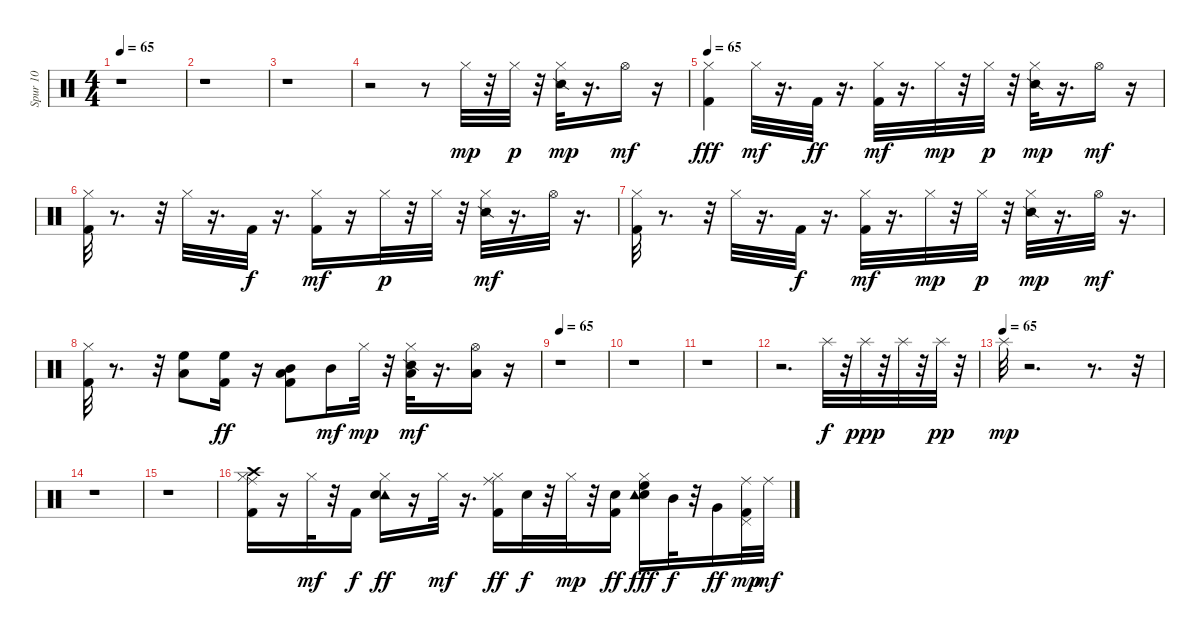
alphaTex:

\track ("Spur 10" "Spur 10") {instrument percussion}
\staff {score}
\articulation defaults
\ts (4 4)
\tempo 65
\clef neutral
\ks c
r.1{dy mp} |
r.1 |
r.1 |
r.2 r.8 "Hi-Hat (closed)".32 r.32 "Hi-Hat (closed)".32{dy p} r.32 ("Hi-Hat (closed)" "Snare (side stick) 2").32{dy mp} r.16{d} "Hi-Hat (open)".16{dy mf} r.16 |
\tempo 65
("Hi-Hat (closed)" "Kick (hit) 2").4{dy fff} "Hi-Hat (closed)".32{dy mf} r.16{d} "Kick (hit) 2".32{dy ff} r.16{d} ("Kick (hit) 2" "Hi-Hat (closed)").32{dy mf} r.16{d} "Hi-Hat (closed)".32{dy mp} r.32 "Hi-Hat (closed)".32{dy p} r.32 ("Snare (side stick) 2" "Hi-Hat (closed)").32{dy mp} r.16{d} "Hi-Hat (open)".16{dy mf} r.16 |
("Kick (hit) 2" "Hi-Hat (closed)").32 r.8{d} r.32 "Hi-Hat (closed)".32 r.16{d} "Kick (hit) 2".32{dy f} r.16{d} ("Kick (hit) 2" "Hi-Hat (closed)").16{dy mf} r.16 "Hi-Hat (closed)".32{dy p} r.32 "Hi-Hat (closed)".32 r.32 ("Snare (side stick) 2" "Hi-Hat (closed)").32{dy mf} r.16{d} "Hi-Hat (open)".32 r.16{d} |
("Kick (hit) 2" "Hi-Hat (closed)").32 r.8{d} r.32 "Hi-Hat (closed)".32 r.16{d} "Kick (hit) 2".32{dy f} r.16{d} ("Kick (hit) 2" "Hi-Hat (closed)").32{dy mf} r.16{d} "Hi-Hat (closed)".32{dy mp} r.32 "Hi-Hat (closed)".32{dy p} r.32 ("Snare (side stick) 2" "Hi-Hat (closed)").32{dy mp} r.16{d} "Hi-Hat (open)".32{dy mf} r.16{d} |
("Kick (hit) 2" "Hi-Hat (closed)").32 r.8{d} r.32 ("Low Tom (hit)" "High Floor Tom (hit)").8 ("Kick (hit) 2" "High Floor Tom (hit)").16{dy ff} r.16 ("Low Tom (hit)" "Kick (hit) 2" "Mid Tom (hit)").8 "Mid Tom (hit)".16{dy mf} "Hi-Hat (closed)".32{dy mp} r.32 ("Snare (side stick) 2" "Hi-Hat (closed)" "Low Tom (hit)").32{dy mf} r.16{d} ("Hi-Hat (open)" "Low Tom (hit)").16 r.16 |
\tempo 65
r.1 |
r.1 |
r.1 |
r.2{d} "Splash (hit)".32{dy f} r.32 "Splash (hit)".32{dy ppp} r.32 "Splash (hit)".32 r.32 "Splash (hit)".32{dy pp} r.32 |
\tempo (65)
"Splash (hit)".32{dy mp} r.2{d} r.8{d} r.32 |
r.1 |
r.1 |
("Ride (middle)" "Crash high (hit)" "Hi-Hat (closed)" "Kick (hit) 2").16 r.16 "Hi-Hat (closed)".32{dy mf} r.32 "Kick (hit) 2".16{dy f} ("Hi-Hat (closed)" "Tambourine (hit)" "Electric Snare (hit)").16{dy ff} r.16 "Hi-Hat (closed)".32{dy mf} r.16{d} ("Ride (middle)" "Hi-Hat (closed)" "Kick (hit) 2").16{dy ff} "Electric Snare (hit)".32{dy f} r.32 "Hi-Hat (closed)".32{dy mp} r.32 ("Kick (hit) 2" "Electric Snare (hit)").16{dy ff} ("High Floor Tom (hit)" "Hi-Hat (closed)" "Electric Snare (hit)" "Tambourine (hit)").16{dy fff} "Mid Tom (hit)".32{dy f} r.32 "Very Low Tom (hit)".16{dy ff} ("Pedal Hi-Hat (hit)" "Kick (hit) 2" "Ride (middle)").32{dy mp} "Ride (middle)".32{dy mf}
